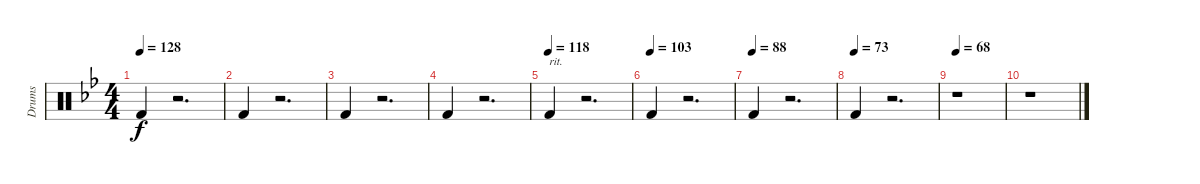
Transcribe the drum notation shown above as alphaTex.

\track ("Drums" "Drums") {instrument percussion}
\staff {score}
\articulation defaults
\ts (4 4)
\tempo 128
\clef neutral
\ks bb "Kick (hit) 2".4{dy f}
r.2{d} |
"Kick (hit) 2".4 r.2{d} |
"Kick (hit) 2".4 r.2{d} |
"Kick (hit) 2".4 r.2{d} |
\tempo (118)
"Kick (hit) 2".4{txt "rit."} r.2{d} |
\tempo (103)
"Kick (hit) 2".4 r.2{d} |
\tempo (88)
"Kick (hit) 2".4 r.2{d} |
\tempo (73)
"Kick (hit) 2".4 r.2{d} |
\tempo 68
r.1 |
r.1
